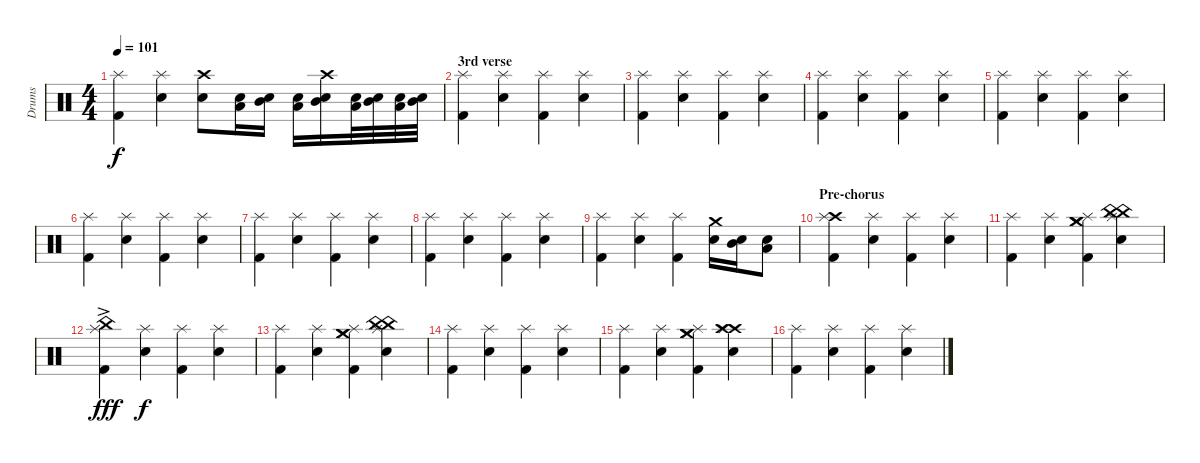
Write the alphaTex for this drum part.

\track ("Drums" "Drums") {instrument percussion}
\staff {score}
\articulation defaults
\ts (4 4)
\tempo 101
\clef neutral
\ks c
("Splash (hit)" "Kick (hit) 2").4{dy f} ("Splash (hit)" "Snare (hit) 2").4 ("Crash high (hit)" "Electric Snare (hit)").8 ("Low Tom (hit)" "Electric Snare (hit)").16 ("Mid Tom (hit)" "Electric Snare (hit)").16 ("Low Tom (hit)" "Electric Snare (hit)").16 ("Crash high (hit)" "Mid Tom (hit)" "Electric Snare (hit)").16 ("Low Tom (hit)" "Electric Snare (hit)").32 ("Mid Tom (hit)" "Electric Snare (hit)").32 ("Low Tom (hit)" "Electric Snare (hit)").32 ("Mid Tom (hit)" "Electric Snare (hit)").32 |
\section ("" "3rd verse")
("Splash (hit)" "Kick (hit) 2").4 ("Splash (hit)" "Snare (hit) 2").4 ("Splash (hit)" "Kick (hit) 2").4 ("Splash (hit)" "Snare (hit) 2").4 |
("Splash (hit)" "Kick (hit) 2").4 ("Splash (hit)" "Snare (hit) 2").4 ("Splash (hit)" "Kick (hit) 2").4 ("Splash (hit)" "Snare (hit) 2").4 |
("Splash (hit)" "Kick (hit) 2").4 ("Splash (hit)" "Snare (hit) 2").4 ("Splash (hit)" "Kick (hit) 2").4 ("Splash (hit)" "Snare (hit) 2").4 |
("Splash (hit)" "Kick (hit) 2").4 ("Splash (hit)" "Snare (hit) 2").4 ("Splash (hit)" "Kick (hit) 2").4 ("Splash (hit)" "Snare (hit) 2").4 |
("Splash (hit)" "Kick (hit) 2").4 ("Splash (hit)" "Snare (hit) 2").4 ("Splash (hit)" "Kick (hit) 2").4 ("Splash (hit)" "Snare (hit) 2").4 |
("Splash (hit)" "Kick (hit) 2").4 ("Splash (hit)" "Snare (hit) 2").4 ("Splash (hit)" "Kick (hit) 2").4 ("Splash (hit)" "Snare (hit) 2").4 |
("Splash (hit)" "Kick (hit) 2").4 ("Splash (hit)" "Snare (hit) 2").4 ("Splash (hit)" "Kick (hit) 2").4 ("Splash (hit)" "Snare (hit) 2").4 |
("Splash (hit)" "Kick (hit) 2").4 ("Splash (hit)" "Snare (hit) 2").4 ("Splash (hit)" "Kick (hit) 2").4 ("Crash medium (hit)" "Snare (hit) 2").16 ("Mid Tom (hit)" "Snare (hit) 2").16 ("Low Tom (hit)" "Snare (hit) 2").8 |
\section ("" "Pre-chorus")
("Crash high (hit)" "Splash (hit)" "Kick (hit) 2").4 ("Splash (hit)" "Snare (hit) 2").4 ("Splash (hit)" "Kick (hit) 2").4 ("Splash (hit)" "Snare (hit) 2").4 |
("Splash (hit)" "Kick (hit) 2").4 ("Splash (hit)" "Snare (hit) 2").4 ("Crash medium (hit)" "Crash medium (hit)" "Splash (hit)" "Kick (hit) 2").4 ("China (hit)" "China (hit)" "Splash (hit)" "Snare (hit) 2").4 |
("China (hit)"{ac} "Splash (hit)" "Kick (hit) 2").4{dy fff} ("Splash (hit)" "Snare (hit) 2").4{dy f} ("Splash (hit)" "Kick (hit) 2").4 ("Splash (hit)" "Snare (hit) 2").4 |
("Splash (hit)" "Kick (hit) 2").4 ("Splash (hit)" "Snare (hit) 2").4 ("Crash medium (hit)" "Crash medium (hit)" "Splash (hit)" "Kick (hit) 2").4 ("China (hit)" "China (hit)" "Splash (hit)" "Snare (hit) 2").4 |
("Splash (hit)" "Kick (hit) 2").4 ("Splash (hit)" "Snare (hit) 2").4 ("Splash (hit)" "Kick (hit) 2").4 ("Splash (hit)" "Snare (hit) 2").4 |
("Splash (hit)" "Kick (hit) 2").4 ("Splash (hit)" "Snare (hit) 2").4 ("Crash medium (hit)" "Crash medium (hit)" "Splash (hit)" "Kick (hit) 2").4 ("Crash high (hit)" "Crash high (hit)" "Splash (hit)" "Snare (hit) 2").4 |
("Splash (hit)" "Kick (hit) 2").4 ("Splash (hit)" "Snare (hit) 2").4 ("Splash (hit)" "Kick (hit) 2").4 ("Splash (hit)" "Snare (hit) 2").4
